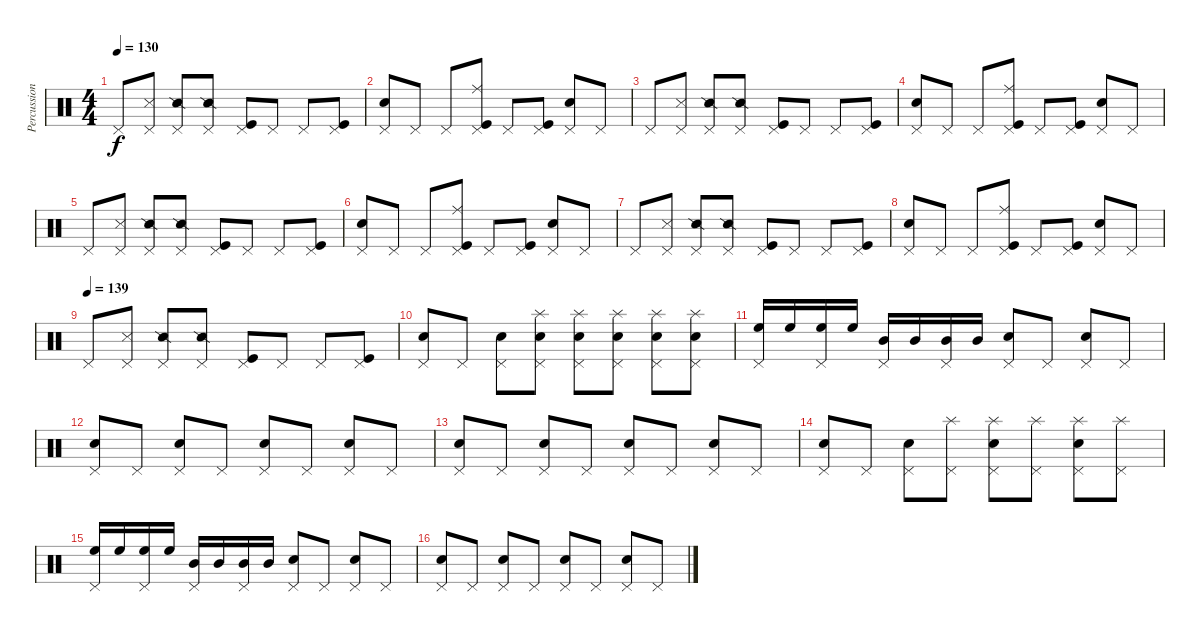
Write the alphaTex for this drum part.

\track ("Percussion" "Percussion") {instrument percussion}
\staff {score}
\articulation defaults
\ts (4 4)
\tempo 130
\clef neutral
\ks c "Pedal Hi-Hat (hit)".8{dy f}
("Snare (side stick) 3" "Pedal Hi-Hat (hit)").8 ("Snare (side stick) 2" "Pedal Hi-Hat (hit)").8 ("Snare (side stick) 2" "Pedal Hi-Hat (hit)").8 ("Kick (hit)" "Pedal Hi-Hat (hit)").8 "Pedal Hi-Hat (hit)".8 "Pedal Hi-Hat (hit)".8 ("Kick (hit)" "Pedal Hi-Hat (hit)").8 |
("Electric Snare (hit)" "Pedal Hi-Hat (hit)").8 "Pedal Hi-Hat (hit)".8 "Pedal Hi-Hat (hit)".8 ("Ride (middle)" "Kick (hit)" "Pedal Hi-Hat (hit)").8 "Pedal Hi-Hat (hit)".8 ("Kick (hit)" "Pedal Hi-Hat (hit)").8 ("Electric Snare (hit)" "Pedal Hi-Hat (hit)").8 "Pedal Hi-Hat (hit)".8 |
"Pedal Hi-Hat (hit)".8 ("Snare (side stick) 3" "Pedal Hi-Hat (hit)").8 ("Snare (side stick) 2" "Pedal Hi-Hat (hit)").8 ("Snare (side stick) 2" "Pedal Hi-Hat (hit)").8 ("Kick (hit)" "Pedal Hi-Hat (hit)").8 "Pedal Hi-Hat (hit)".8 "Pedal Hi-Hat (hit)".8 ("Kick (hit)" "Pedal Hi-Hat (hit)").8 |
("Electric Snare (hit)" "Pedal Hi-Hat (hit)").8 "Pedal Hi-Hat (hit)".8 "Pedal Hi-Hat (hit)".8 ("Ride (middle)" "Kick (hit)" "Pedal Hi-Hat (hit)").8 "Pedal Hi-Hat (hit)".8 ("Kick (hit)" "Pedal Hi-Hat (hit)").8 ("Electric Snare (hit)" "Pedal Hi-Hat (hit)").8 "Pedal Hi-Hat (hit)".8 |
"Pedal Hi-Hat (hit)".8 ("Snare (side stick) 3" "Pedal Hi-Hat (hit)").8 ("Snare (side stick) 2" "Pedal Hi-Hat (hit)").8 ("Snare (side stick) 2" "Pedal Hi-Hat (hit)").8 ("Kick (hit)" "Pedal Hi-Hat (hit)").8 "Pedal Hi-Hat (hit)".8 "Pedal Hi-Hat (hit)".8 ("Kick (hit)" "Pedal Hi-Hat (hit)").8 |
("Electric Snare (hit)" "Pedal Hi-Hat (hit)").8 "Pedal Hi-Hat (hit)".8 "Pedal Hi-Hat (hit)".8 ("Ride (middle)" "Kick (hit)" "Pedal Hi-Hat (hit)").8 "Pedal Hi-Hat (hit)".8 ("Kick (hit)" "Pedal Hi-Hat (hit)").8 ("Electric Snare (hit)" "Pedal Hi-Hat (hit)").8 "Pedal Hi-Hat (hit)".8 |
"Pedal Hi-Hat (hit)".8 ("Snare (side stick) 3" "Pedal Hi-Hat (hit)").8 ("Snare (side stick) 2" "Pedal Hi-Hat (hit)").8 ("Snare (side stick) 2" "Pedal Hi-Hat (hit)").8 ("Kick (hit)" "Pedal Hi-Hat (hit)").8 "Pedal Hi-Hat (hit)".8 "Pedal Hi-Hat (hit)".8 ("Kick (hit)" "Pedal Hi-Hat (hit)").8 |
("Electric Snare (hit)" "Pedal Hi-Hat (hit)").8 "Pedal Hi-Hat (hit)".8 "Pedal Hi-Hat (hit)".8 ("Ride (middle)" "Kick (hit)" "Pedal Hi-Hat (hit)").8 "Pedal Hi-Hat (hit)".8 ("Kick (hit)" "Pedal Hi-Hat (hit)").8 ("Electric Snare (hit)" "Pedal Hi-Hat (hit)").8 "Pedal Hi-Hat (hit)".8 |
\tempo (139)
"Pedal Hi-Hat (hit)".8 ("Snare (side stick) 3" "Pedal Hi-Hat (hit)").8 ("Snare (side stick) 2" "Pedal Hi-Hat (hit)").8 ("Snare (side stick) 2" "Pedal Hi-Hat (hit)").8 ("Kick (hit)" "Pedal Hi-Hat (hit)").8 "Pedal Hi-Hat (hit)".8 "Pedal Hi-Hat (hit)".8 ("Kick (hit)" "Pedal Hi-Hat (hit)").8 |
("Electric Snare (hit)" "Pedal Hi-Hat (hit)").8 "Pedal Hi-Hat (hit)".8 ("Electric Snare (hit)" "Pedal Hi-Hat (hit)").8 ("Splash (hit)" "Electric Snare (hit)" "Pedal Hi-Hat (hit)").8 ("Splash (hit)" "Electric Snare (hit)" "Pedal Hi-Hat (hit)").8 ("Splash (hit)" "Electric Snare (hit)" "Pedal Hi-Hat (hit)").8 ("Splash (hit)" "Electric Snare (hit)" "Pedal Hi-Hat (hit)").8 ("Splash (hit)" "Electric Snare (hit)" "Pedal Hi-Hat (hit)").8 |
("High Floor Tom (hit)" "Pedal Hi-Hat (hit)").16 "High Floor Tom (hit)".16 ("High Floor Tom (hit)" "Pedal Hi-Hat (hit)").16 "High Floor Tom (hit)".16 ("Mid Tom (hit)" "Pedal Hi-Hat (hit)").16 "Mid Tom (hit)".16 ("Mid Tom (hit)" "Pedal Hi-Hat (hit)").16 "Mid Tom (hit)".16 ("Electric Snare (hit)" "Pedal Hi-Hat (hit)").8 "Pedal Hi-Hat (hit)".8 ("Electric Snare (hit)" "Pedal Hi-Hat (hit)").8 "Pedal Hi-Hat (hit)".8 |
("Electric Snare (hit)" "Pedal Hi-Hat (hit)").8 "Pedal Hi-Hat (hit)".8 ("Electric Snare (hit)" "Pedal Hi-Hat (hit)").8 "Pedal Hi-Hat (hit)".8 ("Electric Snare (hit)" "Pedal Hi-Hat (hit)").8 "Pedal Hi-Hat (hit)".8 ("Electric Snare (hit)" "Pedal Hi-Hat (hit)").8 "Pedal Hi-Hat (hit)".8 |
("Electric Snare (hit)" "Pedal Hi-Hat (hit)").8 "Pedal Hi-Hat (hit)".8 ("Electric Snare (hit)" "Pedal Hi-Hat (hit)").8 "Pedal Hi-Hat (hit)".8 ("Electric Snare (hit)" "Pedal Hi-Hat (hit)").8 "Pedal Hi-Hat (hit)".8 ("Electric Snare (hit)" "Pedal Hi-Hat (hit)").8 "Pedal Hi-Hat (hit)".8 |
("Electric Snare (hit)" "Pedal Hi-Hat (hit)").8 "Pedal Hi-Hat (hit)".8 ("Electric Snare (hit)" "Pedal Hi-Hat (hit)").8 ("Splash (hit)" "Pedal Hi-Hat (hit)").8 ("Splash (hit)" "Electric Snare (hit)" "Pedal Hi-Hat (hit)").8 ("Splash (hit)" "Pedal Hi-Hat (hit)").8 ("Splash (hit)" "Electric Snare (hit)" "Pedal Hi-Hat (hit)").8 ("Splash (hit)" "Pedal Hi-Hat (hit)").8 |
("High Floor Tom (hit)" "Pedal Hi-Hat (hit)").16 "High Floor Tom (hit)".16 ("High Floor Tom (hit)" "Pedal Hi-Hat (hit)").16 "High Floor Tom (hit)".16 ("Mid Tom (hit)" "Pedal Hi-Hat (hit)").16 "Mid Tom (hit)".16 ("Mid Tom (hit)" "Pedal Hi-Hat (hit)").16 "Mid Tom (hit)".16 ("Electric Snare (hit)" "Pedal Hi-Hat (hit)").8 "Pedal Hi-Hat (hit)".8 ("Electric Snare (hit)" "Pedal Hi-Hat (hit)").8 "Pedal Hi-Hat (hit)".8 |
("Electric Snare (hit)" "Pedal Hi-Hat (hit)").8 "Pedal Hi-Hat (hit)".8 ("Electric Snare (hit)" "Pedal Hi-Hat (hit)").8 "Pedal Hi-Hat (hit)".8 ("Electric Snare (hit)" "Pedal Hi-Hat (hit)").8 "Pedal Hi-Hat (hit)".8 ("Electric Snare (hit)" "Pedal Hi-Hat (hit)").8 "Pedal Hi-Hat (hit)".8
